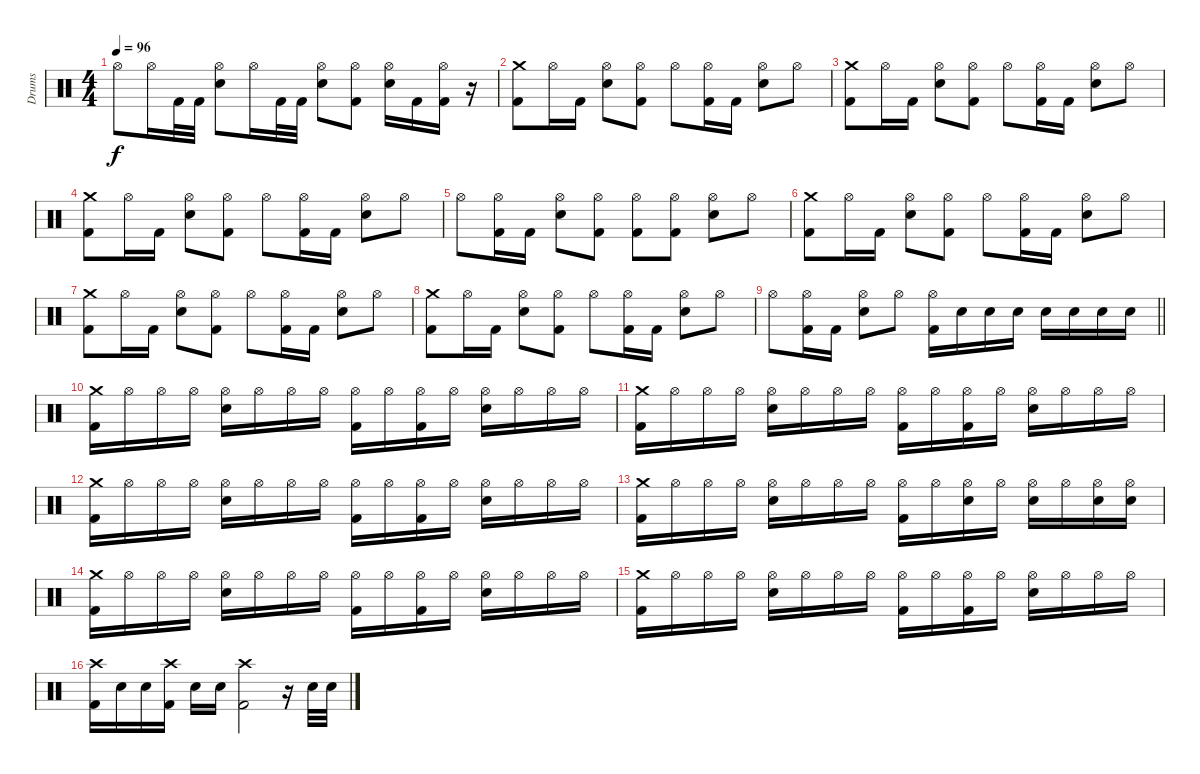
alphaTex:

\track ("Drums" "Drums") {instrument percussion}
\staff {score}
\articulation defaults
\ts (4 4)
\tempo 96
\clef neutral
\ks c "Hi-Hat (open)".8{dy f} "Hi-Hat (open)".16 "Kick (hit) 2".32 "Kick (hit) 2".32
("Hi-Hat (open)" "Electric Snare (hit)").8 "Hi-Hat (open)".16 "Kick (hit) 2".32 "Kick (hit) 2".32 ("Hi-Hat (open)" "Electric Snare (hit)").8 ("Hi-Hat (open)" "Kick (hit) 2").8 ("Hi-Hat (open)" "Electric Snare (hit)").16 "Kick (hit) 2".16 ("Hi-Hat (open)" "Kick (hit) 2").16 r.16 |
("Crash medium (hit)" "Kick (hit) 2").8 "Hi-Hat (open)".16 "Kick (hit) 2".16 ("Hi-Hat (open)" "Electric Snare (hit)").8 ("Hi-Hat (open)" "Kick (hit) 2").8 "Hi-Hat (open)".8 ("Hi-Hat (open)" "Kick (hit) 2").16 "Kick (hit) 2".16 ("Hi-Hat (open)" "Electric Snare (hit)").8 "Hi-Hat (open)".8 |
("Crash medium (hit)" "Kick (hit) 2").8 "Hi-Hat (open)".16 "Kick (hit) 2".16 ("Hi-Hat (open)" "Electric Snare (hit)").8 ("Hi-Hat (open)" "Kick (hit) 2").8 "Hi-Hat (open)".8 ("Hi-Hat (open)" "Kick (hit) 2").16 "Kick (hit) 2".16 ("Hi-Hat (open)" "Electric Snare (hit)").8 "Hi-Hat (open)".8 |
("Crash medium (hit)" "Kick (hit) 2").8 "Hi-Hat (open)".16 "Kick (hit) 2".16 ("Hi-Hat (open)" "Electric Snare (hit)").8 ("Hi-Hat (open)" "Kick (hit) 2").8 "Hi-Hat (open)".8 ("Hi-Hat (open)" "Kick (hit) 2").16 "Kick (hit) 2".16 ("Hi-Hat (open)" "Electric Snare (hit)").8 "Hi-Hat (open)".8 |
"Hi-Hat (open)".8 ("Hi-Hat (open)" "Kick (hit) 2").16 "Kick (hit) 2".16 ("Hi-Hat (open)" "Electric Snare (hit)").8 ("Hi-Hat (open)" "Kick (hit) 2").8 ("Hi-Hat (open)" "Kick (hit) 2").8 ("Hi-Hat (open)" "Kick (hit) 2").8 ("Hi-Hat (open)" "Electric Snare (hit)").8 "Hi-Hat (open)".8 |
("Crash medium (hit)" "Kick (hit) 2").8 "Hi-Hat (open)".16 "Kick (hit) 2".16 ("Hi-Hat (open)" "Electric Snare (hit)").8 ("Hi-Hat (open)" "Kick (hit) 2").8 "Hi-Hat (open)".8 ("Hi-Hat (open)" "Kick (hit) 2").16 "Kick (hit) 2".16 ("Hi-Hat (open)" "Electric Snare (hit)").8 "Hi-Hat (open)".8 |
("Crash medium (hit)" "Kick (hit) 2").8 "Hi-Hat (open)".16 "Kick (hit) 2".16 ("Hi-Hat (open)" "Electric Snare (hit)").8 ("Hi-Hat (open)" "Kick (hit) 2").8 "Hi-Hat (open)".8 ("Hi-Hat (open)" "Kick (hit) 2").16 "Kick (hit) 2".16 ("Hi-Hat (open)" "Electric Snare (hit)").8 "Hi-Hat (open)".8 |
("Crash medium (hit)" "Kick (hit) 2").8 "Hi-Hat (open)".16 "Kick (hit) 2".16 ("Hi-Hat (open)" "Electric Snare (hit)").8 ("Hi-Hat (open)" "Kick (hit) 2").8 "Hi-Hat (open)".8 ("Hi-Hat (open)" "Kick (hit) 2").16 "Kick (hit) 2".16 ("Hi-Hat (open)" "Electric Snare (hit)").8 "Hi-Hat (open)".8 |
\barLineRight lightlight "Hi-Hat (open)".8
("Hi-Hat (open)" "Kick (hit) 2").16 "Kick (hit) 2".16 ("Hi-Hat (open)" "Electric Snare (hit)").8 "Hi-Hat (open)".8 ("Hi-Hat (open)" "Kick (hit) 2").16 "Electric Snare (hit)".16 "Electric Snare (hit)".16 "Electric Snare (hit)".16 "Electric Snare (hit)".16 "Electric Snare (hit)".16 "Electric Snare (hit)".16 "Electric Snare (hit)".16 |
("Crash medium (hit)" "Kick (hit) 2").16 "Hi-Hat (open)".16 "Hi-Hat (open)".16 "Hi-Hat (open)".16 ("Hi-Hat (open)" "Electric Snare (hit)").16 "Hi-Hat (open)".16 "Hi-Hat (open)".16 "Hi-Hat (open)".16 ("Hi-Hat (open)" "Kick (hit) 2").16 "Hi-Hat (open)".16 ("Hi-Hat (open)" "Kick (hit) 2").16 "Hi-Hat (open)".16 ("Hi-Hat (open)" "Electric Snare (hit)").16 "Hi-Hat (open)".16 "Hi-Hat (open)".16 "Hi-Hat (open)".16 |
("Crash medium (hit)" "Kick (hit) 2").16 "Hi-Hat (open)".16 "Hi-Hat (open)".16 "Hi-Hat (open)".16 ("Hi-Hat (open)" "Electric Snare (hit)").16 "Hi-Hat (open)".16 "Hi-Hat (open)".16 "Hi-Hat (open)".16 ("Hi-Hat (open)" "Kick (hit) 2").16 "Hi-Hat (open)".16 ("Hi-Hat (open)" "Kick (hit) 2").16 "Hi-Hat (open)".16 ("Hi-Hat (open)" "Electric Snare (hit)").16 "Hi-Hat (open)".16 "Hi-Hat (open)".16 "Hi-Hat (open)".16 |
("Crash medium (hit)" "Kick (hit) 2").16 "Hi-Hat (open)".16 "Hi-Hat (open)".16 "Hi-Hat (open)".16 ("Hi-Hat (open)" "Electric Snare (hit)").16 "Hi-Hat (open)".16 "Hi-Hat (open)".16 "Hi-Hat (open)".16 ("Hi-Hat (open)" "Kick (hit) 2").16 "Hi-Hat (open)".16 ("Hi-Hat (open)" "Kick (hit) 2").16 "Hi-Hat (open)".16 ("Hi-Hat (open)" "Electric Snare (hit)").16 "Hi-Hat (open)".16 "Hi-Hat (open)".16 "Hi-Hat (open)".16 |
("Crash medium (hit)" "Kick (hit) 2").16 "Hi-Hat (open)".16 "Hi-Hat (open)".16 "Hi-Hat (open)".16 ("Hi-Hat (open)" "Electric Snare (hit)").16 "Hi-Hat (open)".16 "Hi-Hat (open)".16 "Hi-Hat (open)".16 ("Hi-Hat (open)" "Kick (hit) 2").16 "Hi-Hat (open)".16 ("Hi-Hat (open)" "Electric Snare (hit)").16 "Hi-Hat (open)".16 ("Hi-Hat (open)" "Electric Snare (hit)").16 "Hi-Hat (open)".16 ("Hi-Hat (open)" "Electric Snare (hit)").16 ("Hi-Hat (open)" "Electric Snare (hit)").16 |
("Crash medium (hit)" "Kick (hit) 2").16 "Hi-Hat (open)".16 "Hi-Hat (open)".16 "Hi-Hat (open)".16 ("Hi-Hat (open)" "Electric Snare (hit)").16 "Hi-Hat (open)".16 "Hi-Hat (open)".16 "Hi-Hat (open)".16 ("Hi-Hat (open)" "Kick (hit) 2").16 "Hi-Hat (open)".16 ("Hi-Hat (open)" "Kick (hit) 2").16 "Hi-Hat (open)".16 ("Hi-Hat (open)" "Electric Snare (hit)").16 "Hi-Hat (open)".16 "Hi-Hat (open)".16 "Hi-Hat (open)".16 |
("Crash medium (hit)" "Kick (hit) 2").16 "Hi-Hat (open)".16 "Hi-Hat (open)".16 "Hi-Hat (open)".16 ("Hi-Hat (open)" "Electric Snare (hit)").16 "Hi-Hat (open)".16 "Hi-Hat (open)".16 "Hi-Hat (open)".16 ("Hi-Hat (open)" "Kick (hit) 2").16 "Hi-Hat (open)".16 ("Hi-Hat (open)" "Kick (hit) 2").16 "Hi-Hat (open)".16 ("Hi-Hat (open)" "Electric Snare (hit)").16 "Hi-Hat (open)".16 "Hi-Hat (open)".16 "Hi-Hat (open)".16 |
("Crash high (hit)" "Kick (hit) 2").16 "Electric Snare (hit)".16 "Electric Snare (hit)".16 ("Crash high (hit)" "Kick (hit) 2").16 "Electric Snare (hit)".16 "Electric Snare (hit)".16 ("Crash high (hit)" "Kick (hit) 2").2 r.16 "Electric Snare (hit)".32 "Electric Snare (hit)".32
